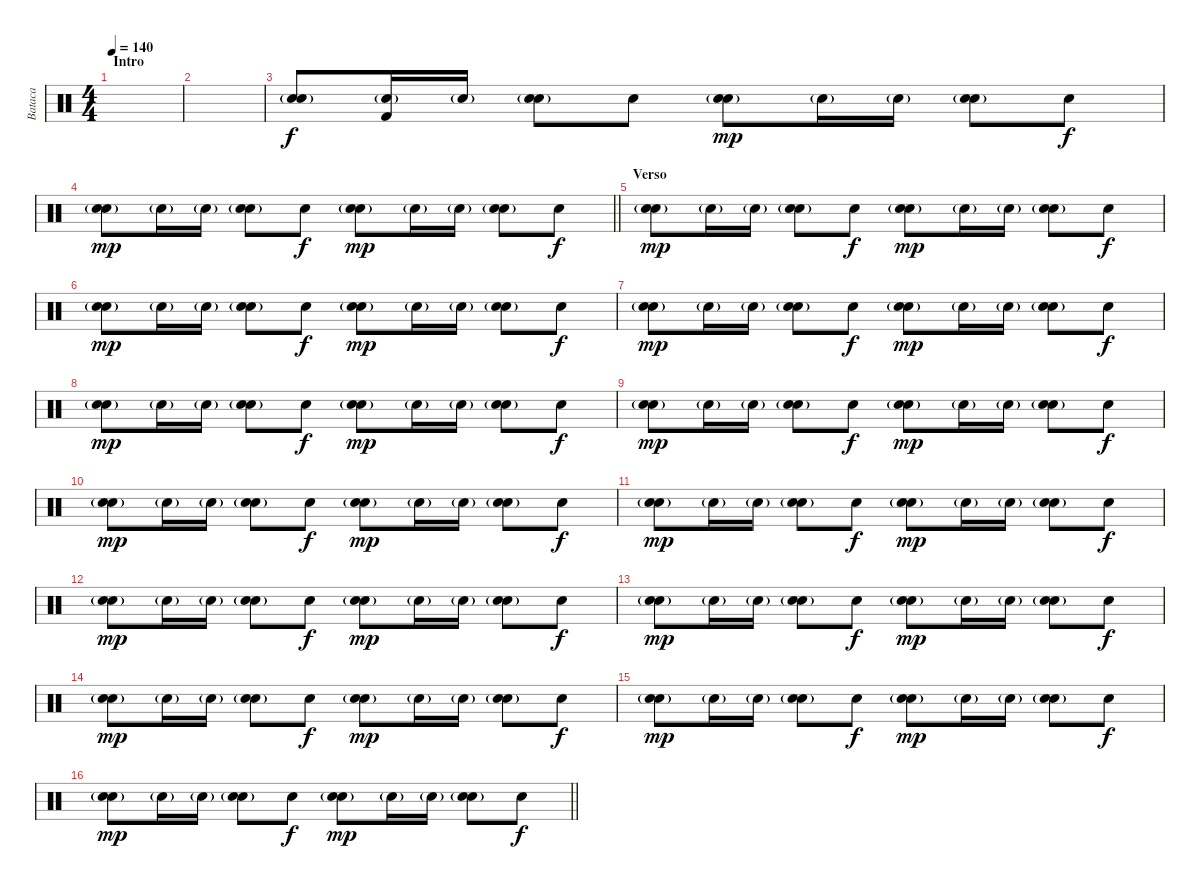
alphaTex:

\track ("Bataca" "Bataca") {instrument percussion}
\staff {score}
\articulation defaults
\ts (4 4)
\section ("" "Intro")
\tempo 140
\clef neutral
\ks c
|
|
("Snare (hit) 2" "Electric Snare (hit)"{g}).8 ("Kick (hit) 2" "Electric Snare (hit)"{g}).16 "Electric Snare (hit)"{g}.16 ("Snare (hit) 2" "Electric Snare (hit)"{g}).8 "Electric Snare (hit)".8{dy f} ("Snare (hit) 2" "Electric Snare (hit)"{g}).8{dy mp} "Electric Snare (hit)"{g}.16 "Electric Snare (hit)"{g}.16 ("Snare (hit) 2" "Electric Snare (hit)"{g}).8 "Electric Snare (hit)".8{dy f} |
\barLineRight lightlight
("Snare (hit) 2" "Electric Snare (hit)"{g}).8{dy mp} "Electric Snare (hit)"{g}.16 "Electric Snare (hit)"{g}.16 ("Snare (hit) 2" "Electric Snare (hit)"{g}).8 "Electric Snare (hit)".8{dy f} ("Snare (hit) 2" "Electric Snare (hit)"{g}).8{dy mp} "Electric Snare (hit)"{g}.16 "Electric Snare (hit)"{g}.16 ("Snare (hit) 2" "Electric Snare (hit)"{g}).8 "Electric Snare (hit)".8{dy f} |
\section ("" "Verso")
("Snare (hit) 2" "Electric Snare (hit)"{g}).8{dy mp} "Electric Snare (hit)"{g}.16 "Electric Snare (hit)"{g}.16 ("Snare (hit) 2" "Electric Snare (hit)"{g}).8 "Electric Snare (hit)".8{dy f} ("Snare (hit) 2" "Electric Snare (hit)"{g}).8{dy mp} "Electric Snare (hit)"{g}.16 "Electric Snare (hit)"{g}.16 ("Snare (hit) 2" "Electric Snare (hit)"{g}).8 "Electric Snare (hit)".8{dy f} |
("Snare (hit) 2" "Electric Snare (hit)"{g}).8{dy mp} "Electric Snare (hit)"{g}.16 "Electric Snare (hit)"{g}.16 ("Snare (hit) 2" "Electric Snare (hit)"{g}).8 "Electric Snare (hit)".8{dy f} ("Snare (hit) 2" "Electric Snare (hit)"{g}).8{dy mp} "Electric Snare (hit)"{g}.16 "Electric Snare (hit)"{g}.16 ("Snare (hit) 2" "Electric Snare (hit)"{g}).8 "Electric Snare (hit)".8{dy f} |
("Snare (hit) 2" "Electric Snare (hit)"{g}).8{dy mp} "Electric Snare (hit)"{g}.16 "Electric Snare (hit)"{g}.16 ("Snare (hit) 2" "Electric Snare (hit)"{g}).8 "Electric Snare (hit)".8{dy f} ("Snare (hit) 2" "Electric Snare (hit)"{g}).8{dy mp} "Electric Snare (hit)"{g}.16 "Electric Snare (hit)"{g}.16 ("Snare (hit) 2" "Electric Snare (hit)"{g}).8 "Electric Snare (hit)".8{dy f} |
("Snare (hit) 2" "Electric Snare (hit)"{g}).8{dy mp} "Electric Snare (hit)"{g}.16 "Electric Snare (hit)"{g}.16 ("Snare (hit) 2" "Electric Snare (hit)"{g}).8 "Electric Snare (hit)".8{dy f} ("Snare (hit) 2" "Electric Snare (hit)"{g}).8{dy mp} "Electric Snare (hit)"{g}.16 "Electric Snare (hit)"{g}.16 ("Snare (hit) 2" "Electric Snare (hit)"{g}).8 "Electric Snare (hit)".8{dy f} |
("Snare (hit) 2" "Electric Snare (hit)"{g}).8{dy mp} "Electric Snare (hit)"{g}.16 "Electric Snare (hit)"{g}.16 ("Snare (hit) 2" "Electric Snare (hit)"{g}).8 "Electric Snare (hit)".8{dy f} ("Snare (hit) 2" "Electric Snare (hit)"{g}).8{dy mp} "Electric Snare (hit)"{g}.16 "Electric Snare (hit)"{g}.16 ("Snare (hit) 2" "Electric Snare (hit)"{g}).8 "Electric Snare (hit)".8{dy f} |
("Snare (hit) 2" "Electric Snare (hit)"{g}).8{dy mp} "Electric Snare (hit)"{g}.16 "Electric Snare (hit)"{g}.16 ("Snare (hit) 2" "Electric Snare (hit)"{g}).8 "Electric Snare (hit)".8{dy f} ("Snare (hit) 2" "Electric Snare (hit)"{g}).8{dy mp} "Electric Snare (hit)"{g}.16 "Electric Snare (hit)"{g}.16 ("Snare (hit) 2" "Electric Snare (hit)"{g}).8 "Electric Snare (hit)".8{dy f} |
("Snare (hit) 2" "Electric Snare (hit)"{g}).8{dy mp} "Electric Snare (hit)"{g}.16 "Electric Snare (hit)"{g}.16 ("Snare (hit) 2" "Electric Snare (hit)"{g}).8 "Electric Snare (hit)".8{dy f} ("Snare (hit) 2" "Electric Snare (hit)"{g}).8{dy mp} "Electric Snare (hit)"{g}.16 "Electric Snare (hit)"{g}.16 ("Snare (hit) 2" "Electric Snare (hit)"{g}).8 "Electric Snare (hit)".8{dy f} |
("Snare (hit) 2" "Electric Snare (hit)"{g}).8{dy mp} "Electric Snare (hit)"{g}.16 "Electric Snare (hit)"{g}.16 ("Snare (hit) 2" "Electric Snare (hit)"{g}).8 "Electric Snare (hit)".8{dy f} ("Snare (hit) 2" "Electric Snare (hit)"{g}).8{dy mp} "Electric Snare (hit)"{g}.16 "Electric Snare (hit)"{g}.16 ("Snare (hit) 2" "Electric Snare (hit)"{g}).8 "Electric Snare (hit)".8{dy f} |
("Snare (hit) 2" "Electric Snare (hit)"{g}).8{dy mp} "Electric Snare (hit)"{g}.16 "Electric Snare (hit)"{g}.16 ("Snare (hit) 2" "Electric Snare (hit)"{g}).8 "Electric Snare (hit)".8{dy f} ("Snare (hit) 2" "Electric Snare (hit)"{g}).8{dy mp} "Electric Snare (hit)"{g}.16 "Electric Snare (hit)"{g}.16 ("Snare (hit) 2" "Electric Snare (hit)"{g}).8 "Electric Snare (hit)".8{dy f} |
("Snare (hit) 2" "Electric Snare (hit)"{g}).8{dy mp} "Electric Snare (hit)"{g}.16 "Electric Snare (hit)"{g}.16 ("Snare (hit) 2" "Electric Snare (hit)"{g}).8 "Electric Snare (hit)".8{dy f} ("Snare (hit) 2" "Electric Snare (hit)"{g}).8{dy mp} "Electric Snare (hit)"{g}.16 "Electric Snare (hit)"{g}.16 ("Snare (hit) 2" "Electric Snare (hit)"{g}).8 "Electric Snare (hit)".8{dy f} |
("Snare (hit) 2" "Electric Snare (hit)"{g}).8{dy mp} "Electric Snare (hit)"{g}.16 "Electric Snare (hit)"{g}.16 ("Snare (hit) 2" "Electric Snare (hit)"{g}).8 "Electric Snare (hit)".8{dy f} ("Snare (hit) 2" "Electric Snare (hit)"{g}).8{dy mp} "Electric Snare (hit)"{g}.16 "Electric Snare (hit)"{g}.16 ("Snare (hit) 2" "Electric Snare (hit)"{g}).8 "Electric Snare (hit)".8{dy f} |
\barLineRight lightlight
("Snare (hit) 2" "Electric Snare (hit)"{g}).8{dy mp} "Electric Snare (hit)"{g}.16 "Electric Snare (hit)"{g}.16 ("Snare (hit) 2" "Electric Snare (hit)"{g}).8 "Electric Snare (hit)".8{dy f} ("Snare (hit) 2" "Electric Snare (hit)"{g}).8{dy mp} "Electric Snare (hit)"{g}.16 "Electric Snare (hit)"{g}.16 ("Snare (hit) 2" "Electric Snare (hit)"{g}).8 "Electric Snare (hit)".8{dy f}
